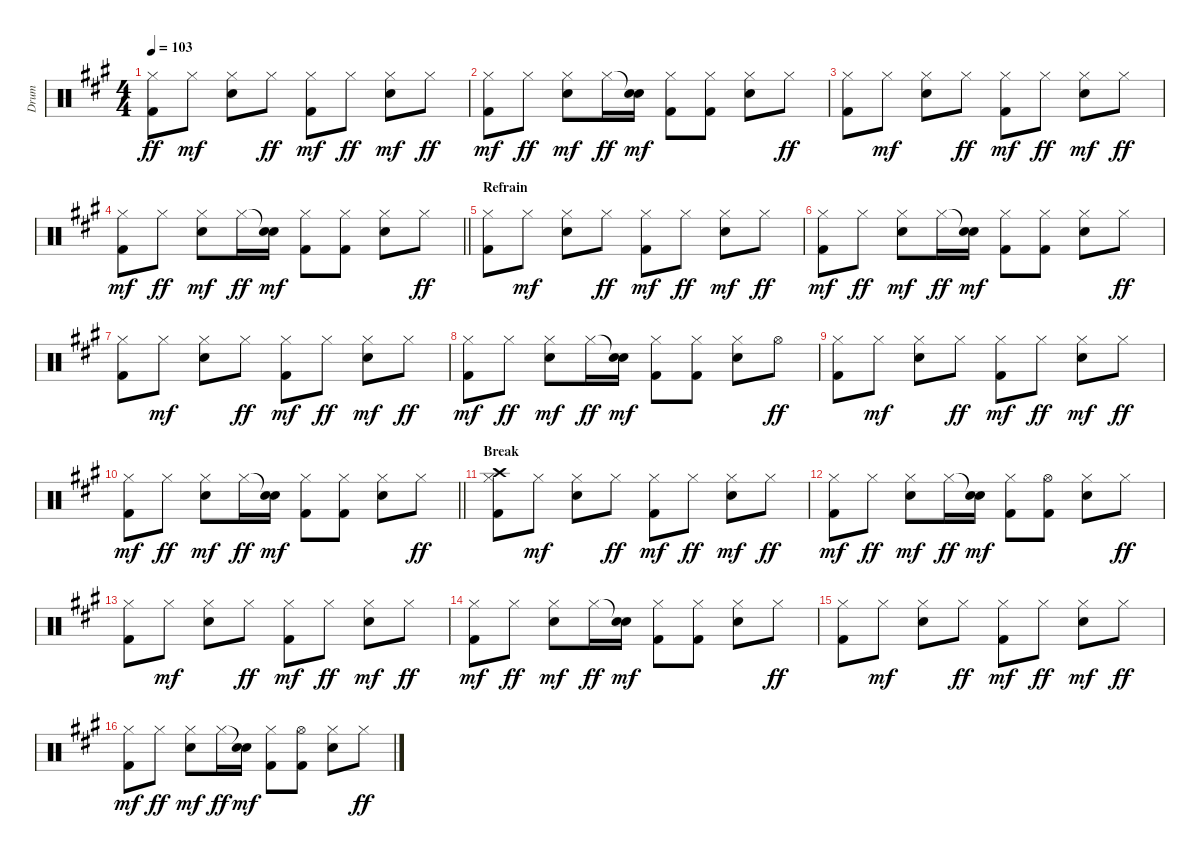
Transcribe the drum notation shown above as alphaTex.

\track ("Drum" "Drum") {instrument percussion}
\staff {score}
\articulation defaults
\ts (4 4)
\tempo 103
\clef neutral
\ks a
("Hi-Hat (closed)" "Kick (hit) 2").8{dy ff} "Hi-Hat (closed)".8{dy mf} ("Hi-Hat (closed)" "Electric Snare (hit)").8 "Hi-Hat (closed)".8{dy ff} ("Hi-Hat (closed)" "Kick (hit) 2").8{dy mf} "Hi-Hat (closed)".8{dy ff} ("Hi-Hat (closed)" "Electric Snare (hit)").8{dy mf} "Hi-Hat (closed)".8{dy ff} |
("Hi-Hat (closed)" "Kick (hit) 2").8{dy mf} "Hi-Hat (closed)".8{dy ff} ("Hi-Hat (closed)" "Electric Snare (hit)").8{dy mf} "Hi-Hat (closed)".16{dy ff} ("Snare (hit)"{t} "Electric Snare (hit)").16{dy mf} ("Hi-Hat (closed)" "Kick (hit) 2").8 ("Hi-Hat (closed)" "Kick (hit) 2").8 ("Hi-Hat (closed)" "Electric Snare (hit)").8 "Hi-Hat (closed)".8{dy ff} |
("Hi-Hat (closed)" "Kick (hit) 2").8 "Hi-Hat (closed)".8{dy mf} ("Hi-Hat (closed)" "Electric Snare (hit)").8 "Hi-Hat (closed)".8{dy ff} ("Hi-Hat (closed)" "Kick (hit) 2").8{dy mf} "Hi-Hat (closed)".8{dy ff} ("Hi-Hat (closed)" "Electric Snare (hit)").8{dy mf} "Hi-Hat (closed)".8{dy ff} |
\barLineRight lightlight
("Hi-Hat (closed)" "Kick (hit) 2").8{dy mf} "Hi-Hat (closed)".8{dy ff} ("Hi-Hat (closed)" "Electric Snare (hit)").8{dy mf} "Hi-Hat (closed)".16{dy ff} ("Snare (hit)"{t} "Electric Snare (hit)").16{dy mf} ("Hi-Hat (closed)" "Kick (hit) 2").8 ("Hi-Hat (closed)" "Kick (hit) 2").8 ("Hi-Hat (closed)" "Electric Snare (hit)").8 "Hi-Hat (closed)".8{dy ff} |
\section ("" "Refrain")
("Hi-Hat (closed)" "Kick (hit) 2").8 "Hi-Hat (closed)".8{dy mf} ("Hi-Hat (closed)" "Electric Snare (hit)").8 "Hi-Hat (closed)".8{dy ff} ("Hi-Hat (closed)" "Kick (hit) 2").8{dy mf} "Hi-Hat (closed)".8{dy ff} ("Hi-Hat (closed)" "Electric Snare (hit)").8{dy mf} "Hi-Hat (closed)".8{dy ff} |
("Hi-Hat (closed)" "Kick (hit) 2").8{dy mf} "Hi-Hat (closed)".8{dy ff} ("Hi-Hat (closed)" "Electric Snare (hit)").8{dy mf} "Hi-Hat (closed)".16{dy ff} ("Snare (hit)"{t} "Electric Snare (hit)").16{dy mf} ("Hi-Hat (closed)" "Kick (hit) 2").8 ("Hi-Hat (closed)" "Kick (hit) 2").8 ("Hi-Hat (closed)" "Electric Snare (hit)").8 "Hi-Hat (closed)".8{dy ff} |
("Hi-Hat (closed)" "Kick (hit) 2").8 "Hi-Hat (closed)".8{dy mf} ("Hi-Hat (closed)" "Electric Snare (hit)").8 "Hi-Hat (closed)".8{dy ff} ("Hi-Hat (closed)" "Kick (hit) 2").8{dy mf} "Hi-Hat (closed)".8{dy ff} ("Hi-Hat (closed)" "Electric Snare (hit)").8{dy mf} "Hi-Hat (closed)".8{dy ff} |
("Hi-Hat (closed)" "Kick (hit) 2").8{dy mf} "Hi-Hat (closed)".8{dy ff} ("Hi-Hat (closed)" "Electric Snare (hit)").8{dy mf} "Hi-Hat (closed)".16{dy ff} ("Snare (hit)"{t} "Electric Snare (hit)").16{dy mf} ("Hi-Hat (closed)" "Kick (hit) 2").8 ("Hi-Hat (closed)" "Kick (hit) 2").8 ("Hi-Hat (closed)" "Electric Snare (hit)").8 "Hi-Hat (open)".8{dy ff} |
("Hi-Hat (closed)" "Kick (hit) 2").8 "Hi-Hat (closed)".8{dy mf} ("Hi-Hat (closed)" "Electric Snare (hit)").8 "Hi-Hat (closed)".8{dy ff} ("Hi-Hat (closed)" "Kick (hit) 2").8{dy mf} "Hi-Hat (closed)".8{dy ff} ("Hi-Hat (closed)" "Electric Snare (hit)").8{dy mf} "Hi-Hat (closed)".8{dy ff} |
\barLineRight lightlight
("Hi-Hat (closed)" "Kick (hit) 2").8{dy mf} "Hi-Hat (closed)".8{dy ff} ("Hi-Hat (closed)" "Electric Snare (hit)").8{dy mf} "Hi-Hat (closed)".16{dy ff} ("Snare (hit)"{t} "Electric Snare (hit)").16{dy mf} ("Hi-Hat (closed)" "Kick (hit) 2").8 ("Hi-Hat (closed)" "Kick (hit) 2").8 ("Hi-Hat (closed)" "Electric Snare (hit)").8 "Hi-Hat (closed)".8{dy ff} |
\section ("" "Break")
("Crash high (hit)" "Hi-Hat (closed)" "Kick (hit) 2").8 "Hi-Hat (closed)".8{dy mf} ("Hi-Hat (closed)" "Electric Snare (hit)").8 "Hi-Hat (closed)".8{dy ff} ("Hi-Hat (closed)" "Kick (hit) 2").8{dy mf} "Hi-Hat (closed)".8{dy ff} ("Hi-Hat (closed)" "Electric Snare (hit)").8{dy mf} "Hi-Hat (closed)".8{dy ff} |
("Hi-Hat (closed)" "Kick (hit) 2").8{dy mf} "Hi-Hat (closed)".8{dy ff} ("Hi-Hat (closed)" "Electric Snare (hit)").8{dy mf} "Hi-Hat (closed)".16{dy ff} ("Snare (hit)"{t} "Electric Snare (hit)").16{dy mf} ("Hi-Hat (closed)" "Kick (hit) 2").8 ("Hi-Hat (open)" "Kick (hit) 2").8 ("Hi-Hat (closed)" "Electric Snare (hit)").8 "Hi-Hat (closed)".8{dy ff} |
("Hi-Hat (closed)" "Kick (hit) 2").8 "Hi-Hat (closed)".8{dy mf} ("Hi-Hat (closed)" "Electric Snare (hit)").8 "Hi-Hat (closed)".8{dy ff} ("Hi-Hat (closed)" "Kick (hit) 2").8{dy mf} "Hi-Hat (closed)".8{dy ff} ("Hi-Hat (closed)" "Electric Snare (hit)").8{dy mf} "Hi-Hat (closed)".8{dy ff} |
("Hi-Hat (closed)" "Kick (hit) 2").8{dy mf} "Hi-Hat (closed)".8{dy ff} ("Hi-Hat (closed)" "Electric Snare (hit)").8{dy mf} "Hi-Hat (closed)".16{dy ff} ("Snare (hit)"{t} "Electric Snare (hit)").16{dy mf} ("Hi-Hat (closed)" "Kick (hit) 2").8 ("Hi-Hat (closed)" "Kick (hit) 2").8 ("Hi-Hat (closed)" "Electric Snare (hit)").8 "Hi-Hat (closed)".8{dy ff} |
("Hi-Hat (closed)" "Kick (hit) 2").8 "Hi-Hat (closed)".8{dy mf} ("Hi-Hat (closed)" "Electric Snare (hit)").8 "Hi-Hat (closed)".8{dy ff} ("Hi-Hat (closed)" "Kick (hit) 2").8{dy mf} "Hi-Hat (closed)".8{dy ff} ("Hi-Hat (closed)" "Electric Snare (hit)").8{dy mf} "Hi-Hat (closed)".8{dy ff} |
("Hi-Hat (closed)" "Kick (hit) 2").8{dy mf} "Hi-Hat (closed)".8{dy ff} ("Hi-Hat (closed)" "Electric Snare (hit)").8{dy mf} "Hi-Hat (closed)".16{dy ff} ("Snare (hit)"{t} "Electric Snare (hit)").16{dy mf} ("Hi-Hat (closed)" "Kick (hit) 2").8 ("Hi-Hat (open)" "Kick (hit) 2").8 ("Hi-Hat (closed)" "Electric Snare (hit)").8 "Hi-Hat (closed)".8{dy ff}
